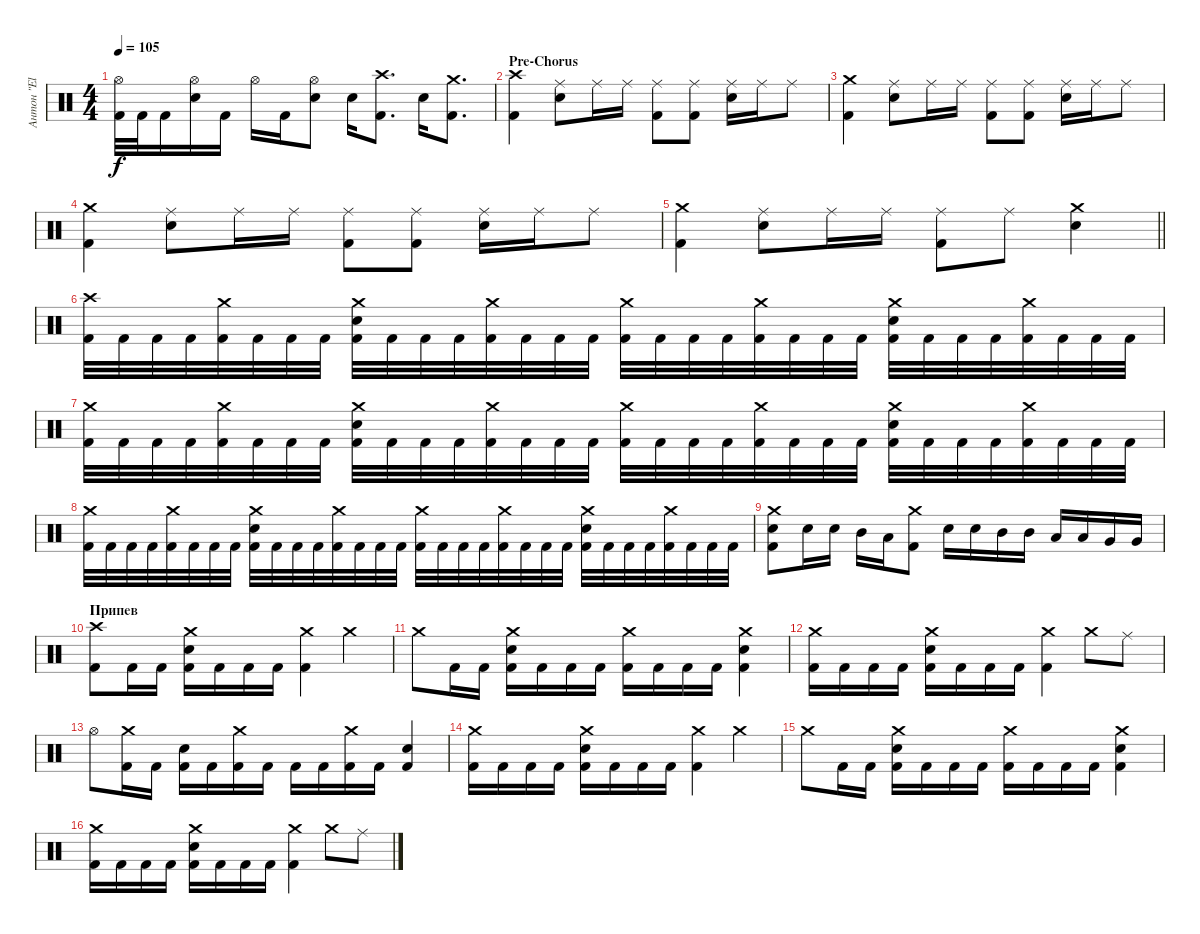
\track ("Антон \"El Bastardo\" Смольянин" "Антон \"El ") {instrument percussion}
\staff {score}
\articulation defaults
\ts (4 4)
\tempo 105
\clef neutral
\ks c
("Hi-Hat (open)" "Kick (hit) 2").32{dy f} "Kick (hit) 2".32 "Kick (hit) 2".16 ("Hi-Hat (open)" "Electric Snare (hit)").16 "Kick (hit) 2".16 "Hi-Hat (open)".16 "Kick (hit) 2".16 ("Hi-Hat (open)" "Electric Snare (hit)").8 "Electric Snare (hit)".16 ("Crash high (hit)" "Kick (hit) 2").8{d} "Electric Snare (hit)".16 ("Crash medium (hit)" "Kick (hit) 2").8{d} |
\section ("" "Pre-Chorus")
("Crash high (hit)" "Kick (hit) 2").4 ("Ride (middle)" "Electric Snare (hit)").8 "Ride (middle)".16 "Ride (middle)".16 ("Ride (middle)" "Kick (hit) 2").8 ("Ride (middle)" "Kick (hit) 2").8 ("Ride (middle)" "Electric Snare (hit)").16 "Ride (middle)".16 "Ride (middle)".8 |
("Crash medium (hit)" "Kick (hit) 2").4 ("Ride (middle)" "Electric Snare (hit)").8 "Ride (middle)".16 "Ride (middle)".16 ("Ride (middle)" "Kick (hit) 2").8 ("Ride (middle)" "Kick (hit) 2").8 ("Ride (middle)" "Electric Snare (hit)").16 "Ride (middle)".16 "Ride (middle)".8 |
("Crash medium (hit)" "Kick (hit) 2").4 ("Ride (middle)" "Electric Snare (hit)").8 "Ride (middle)".16 "Ride (middle)".16 ("Ride (middle)" "Kick (hit) 2").8 ("Ride (middle)" "Kick (hit) 2").8 ("Ride (middle)" "Electric Snare (hit)").16 "Ride (middle)".16 "Ride (middle)".8 |
\barLineRight lightlight
("Crash medium (hit)" "Kick (hit) 2").4 ("Ride (middle)" "Electric Snare (hit)").8 "Ride (middle)".16 "Ride (middle)".16 ("Ride (middle)" "Kick (hit) 2").8 "Ride (middle)".8 ("Crash medium (hit)" "Electric Snare (hit)").4 |
("Crash high (hit)" "Kick (hit) 2").32 "Kick (hit) 2".32 "Kick (hit) 2".32 "Kick (hit) 2".32 ("Crash medium (hit)" "Kick (hit) 2").32 "Kick (hit) 2".32 "Kick (hit) 2".32 "Kick (hit) 2".32 ("Crash medium (hit)" "Electric Snare (hit)" "Kick (hit) 2").32 "Kick (hit) 2".32 "Kick (hit) 2".32 "Kick (hit) 2".32 ("Crash medium (hit)" "Kick (hit) 2").32 "Kick (hit) 2".32 "Kick (hit) 2".32 "Kick (hit) 2".32 ("Crash medium (hit)" "Kick (hit) 2").32 "Kick (hit) 2".32 "Kick (hit) 2".32 "Kick (hit) 2".32 ("Crash medium (hit)" "Kick (hit) 2").32 "Kick (hit) 2".32 "Kick (hit) 2".32 "Kick (hit) 2".32 ("Crash medium (hit)" "Electric Snare (hit)" "Kick (hit) 2").32 "Kick (hit) 2".32 "Kick (hit) 2".32 "Kick (hit) 2".32 ("Crash medium (hit)" "Kick (hit) 2").32 "Kick (hit) 2".32 "Kick (hit) 2".32 "Kick (hit) 2".32 |
("Crash medium (hit)" "Kick (hit) 2").32 "Kick (hit) 2".32 "Kick (hit) 2".32 "Kick (hit) 2".32 ("Crash medium (hit)" "Kick (hit) 2").32 "Kick (hit) 2".32 "Kick (hit) 2".32 "Kick (hit) 2".32 ("Crash medium (hit)" "Electric Snare (hit)" "Kick (hit) 2").32 "Kick (hit) 2".32 "Kick (hit) 2".32 "Kick (hit) 2".32 ("Crash medium (hit)" "Kick (hit) 2").32 "Kick (hit) 2".32 "Kick (hit) 2".32 "Kick (hit) 2".32 ("Crash medium (hit)" "Kick (hit) 2").32 "Kick (hit) 2".32 "Kick (hit) 2".32 "Kick (hit) 2".32 ("Crash medium (hit)" "Kick (hit) 2").32 "Kick (hit) 2".32 "Kick (hit) 2".32 "Kick (hit) 2".32 ("Crash medium (hit)" "Electric Snare (hit)" "Kick (hit) 2").32 "Kick (hit) 2".32 "Kick (hit) 2".32 "Kick (hit) 2".32 ("Crash medium (hit)" "Kick (hit) 2").32 "Kick (hit) 2".32 "Kick (hit) 2".32 "Kick (hit) 2".32 |
("Crash medium (hit)" "Kick (hit) 2").32 "Kick (hit) 2".32 "Kick (hit) 2".32 "Kick (hit) 2".32 ("Crash medium (hit)" "Kick (hit) 2").32 "Kick (hit) 2".32 "Kick (hit) 2".32 "Kick (hit) 2".32 ("Crash medium (hit)" "Electric Snare (hit)" "Kick (hit) 2").32 "Kick (hit) 2".32 "Kick (hit) 2".32 "Kick (hit) 2".32 ("Crash medium (hit)" "Kick (hit) 2").32 "Kick (hit) 2".32 "Kick (hit) 2".32 "Kick (hit) 2".32 ("Crash medium (hit)" "Kick (hit) 2").32 "Kick (hit) 2".32 "Kick (hit) 2".32 "Kick (hit) 2".32 ("Crash medium (hit)" "Kick (hit) 2").32 "Kick (hit) 2".32 "Kick (hit) 2".32 "Kick (hit) 2".32 ("Crash medium (hit)" "Electric Snare (hit)" "Kick (hit) 2").32 "Kick (hit) 2".32 "Kick (hit) 2".32 "Kick (hit) 2".32 ("Crash medium (hit)" "Kick (hit) 2").32 "Kick (hit) 2".32 "Kick (hit) 2".32 "Kick (hit) 2".32 |
("Crash medium (hit)" "Electric Snare (hit)" "Kick (hit) 2").8 "Electric Snare (hit)".16 "Electric Snare (hit)".16 "Mid Tom (hit)".16 "Low Tom (hit)".16 ("Crash medium (hit)" "Kick (hit) 2").8 "Electric Snare (hit)".16 "Electric Snare (hit)".16 "Mid Tom (hit)".16 "Mid Tom (hit)".16 "Low Tom (hit)".16 "Low Tom (hit)".16 "Very Low Tom (hit)".16 "Very Low Tom (hit)".16 |
\section ("" "Припев")
("Crash high (hit)" "Kick (hit) 2").8 "Kick (hit) 2".16 "Kick (hit) 2".16 ("Crash medium (hit)" "Electric Snare (hit)" "Kick (hit) 2").16 "Kick (hit) 2".16 "Kick (hit) 2".16 "Kick (hit) 2".16 ("Crash medium (hit)" "Kick (hit) 2").4 "Crash medium (hit)".4 |
"Crash medium (hit)".8 "Kick (hit) 2".16 "Kick (hit) 2".16 ("Crash medium (hit)" "Electric Snare (hit)" "Kick (hit) 2").16 "Kick (hit) 2".16 "Kick (hit) 2".16 "Kick (hit) 2".16 ("Crash medium (hit)" "Kick (hit) 2").16 "Kick (hit) 2".16 "Kick (hit) 2".16 "Kick (hit) 2".16 ("Crash medium (hit)" "Electric Snare (hit)" "Kick (hit) 2").4 |
("Crash medium (hit)" "Kick (hit) 2").16 "Kick (hit) 2".16 "Kick (hit) 2".16 "Kick (hit) 2".16 ("Crash medium (hit)" "Electric Snare (hit)" "Kick (hit) 2").16 "Kick (hit) 2".16 "Kick (hit) 2".16 "Kick (hit) 2".16 ("Crash medium (hit)" "Kick (hit) 2").4 "Crash medium (hit)".8 "Ride (middle)".8 |
"Hi-Hat (open)".8 ("Crash medium (hit)" "Kick (hit) 2").16 "Kick (hit) 2".16 ("Electric Snare (hit)" "Kick (hit) 2").16 "Kick (hit) 2".16 ("Crash medium (hit)" "Kick (hit) 2").16 "Kick (hit) 2".16 "Kick (hit) 2".16 "Kick (hit) 2".16 ("Crash medium (hit)" "Kick (hit) 2").16 "Kick (hit) 2".16 ("Electric Snare (hit)" "Kick (hit) 2").4 |
("Crash medium (hit)" "Kick (hit) 2").16 "Kick (hit) 2".16 "Kick (hit) 2".16 "Kick (hit) 2".16 ("Crash medium (hit)" "Electric Snare (hit)" "Kick (hit) 2").16 "Kick (hit) 2".16 "Kick (hit) 2".16 "Kick (hit) 2".16 ("Crash medium (hit)" "Kick (hit) 2").4 "Crash medium (hit)".4 |
"Crash medium (hit)".8 "Kick (hit) 2".16 "Kick (hit) 2".16 ("Crash medium (hit)" "Electric Snare (hit)" "Kick (hit) 2").16 "Kick (hit) 2".16 "Kick (hit) 2".16 "Kick (hit) 2".16 ("Crash medium (hit)" "Kick (hit) 2").16 "Kick (hit) 2".16 "Kick (hit) 2".16 "Kick (hit) 2".16 ("Crash medium (hit)" "Electric Snare (hit)" "Kick (hit) 2").4 |
("Crash medium (hit)" "Kick (hit) 2").16 "Kick (hit) 2".16 "Kick (hit) 2".16 "Kick (hit) 2".16 ("Crash medium (hit)" "Electric Snare (hit)" "Kick (hit) 2").16 "Kick (hit) 2".16 "Kick (hit) 2".16 "Kick (hit) 2".16 ("Crash medium (hit)" "Kick (hit) 2").4 "Crash medium (hit)".8 "Ride (middle)".8
